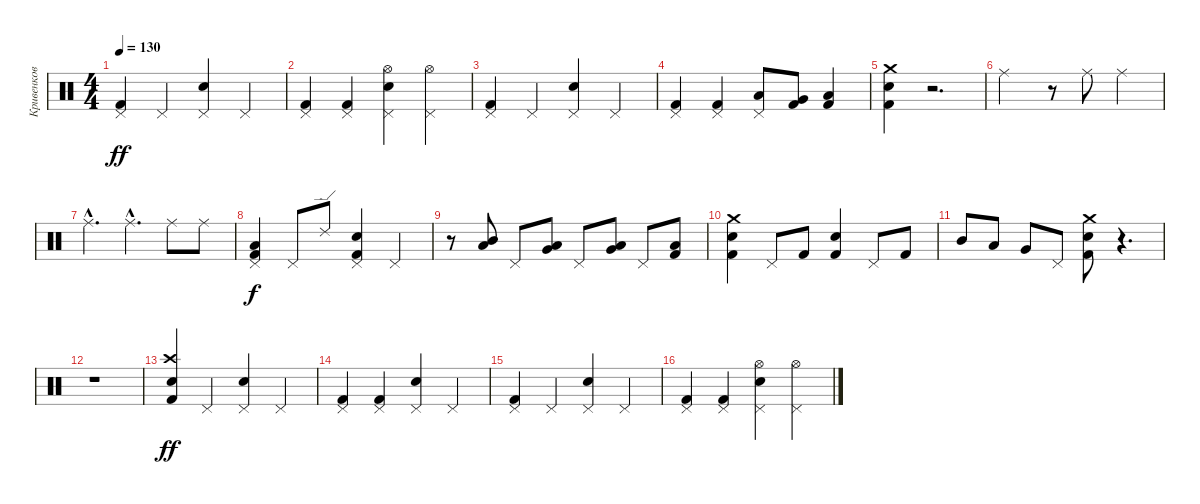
\track ("Кривенков Дмитрий" "Кривенков ") {instrument percussion}
\staff {score}
\articulation defaults
\ts (4 4)
\tempo 130
\clef neutral
\ks c
("Kick (hit) 2" "Pedal Hi-Hat (hit)").4{dy ff} "Pedal Hi-Hat (hit)".4 ("Pedal Hi-Hat (hit)" "Electric Snare (hit)").4 "Pedal Hi-Hat (hit)".4 |
("Kick (hit) 2" "Pedal Hi-Hat (hit)").4 ("Kick (hit) 2" "Pedal Hi-Hat (hit)").4 ("Pedal Hi-Hat (hit)" "Electric Snare (hit)" "Hi-Hat (open)").4 ("Pedal Hi-Hat (hit)" "Hi-Hat (open)").4 |
("Kick (hit) 2" "Pedal Hi-Hat (hit)").4 "Pedal Hi-Hat (hit)".4 ("Pedal Hi-Hat (hit)" "Electric Snare (hit)").4 "Pedal Hi-Hat (hit)".4 |
("Kick (hit) 2" "Pedal Hi-Hat (hit)").4 ("Kick (hit) 2" "Pedal Hi-Hat (hit)").4 ("Pedal Hi-Hat (hit)" "Low Tom (hit)").8 ("Kick (hit) 2" "Very Low Tom (hit)").8 ("Kick (hit) 2" "Low Floor Tom (hit)").4 |
("Kick (hit) 2" "Electric Snare (hit)" "Crash medium (hit)").4 r.2{d} |
"Ride (middle)".2 r.8 "Ride (middle)".8 "Ride (middle)".4 |
"Ride (middle)"{hac}.4{d} "Ride (middle)"{hac}.4{d} "Ride (middle)".8 "Ride (middle)".8 |
("Low Floor Tom (hit)" "Kick (hit) 2" "Pedal Hi-Hat (hit)").4{dy f} "Pedal Hi-Hat (hit)".8 "Ride (edge) 2".8 ("Electric Snare (hit)" "Kick (hit) 2" "Pedal Hi-Hat (hit)").4 "Pedal Hi-Hat (hit)".4 |
r.8 ("Mid Tom (hit)" "Low Tom (hit)").8 "Pedal Hi-Hat (hit)".8 ("Low Tom (hit)" "Very Low Tom (hit)").8 "Pedal Hi-Hat (hit)".8 ("Very Low Tom (hit)" "Low Floor Tom (hit)").8 "Pedal Hi-Hat (hit)".8 ("Kick (hit) 2" "Low Floor Tom (hit)").8 |
("Electric Snare (hit)" "Kick (hit) 2" "Crash medium (hit)").4 "Pedal Hi-Hat (hit)".8 "Kick (hit) 2".8 ("Electric Snare (hit)" "Kick (hit) 2").4 "Pedal Hi-Hat (hit)".8 "Kick (hit) 2".8 |
"Mid Tom (hit)".8 "Low Tom (hit)".8 "Very Low Tom (hit)".8 "Pedal Hi-Hat (hit)".8 ("Electric Snare (hit)" "Kick (hit) 2" "Crash medium (hit)").8 r.4{d} |
r.1 |
("Crash high (hit)" "Kick (hit) 2" "Snare (hit) 2").4{dy ff} "Pedal Hi-Hat (hit)".4 ("Pedal Hi-Hat (hit)" "Electric Snare (hit)").4 "Pedal Hi-Hat (hit)".4 |
("Kick (hit) 2" "Pedal Hi-Hat (hit)").4 ("Kick (hit) 2" "Pedal Hi-Hat (hit)").4 ("Pedal Hi-Hat (hit)" "Electric Snare (hit)").4 "Pedal Hi-Hat (hit)".4 |
("Kick (hit) 2" "Pedal Hi-Hat (hit)").4 "Pedal Hi-Hat (hit)".4 ("Pedal Hi-Hat (hit)" "Electric Snare (hit)").4 "Pedal Hi-Hat (hit)".4 |
("Kick (hit) 2" "Pedal Hi-Hat (hit)").4 ("Kick (hit) 2" "Pedal Hi-Hat (hit)").4 ("Pedal Hi-Hat (hit)" "Electric Snare (hit)" "Hi-Hat (open)").4 ("Pedal Hi-Hat (hit)" "Hi-Hat (open)").4
